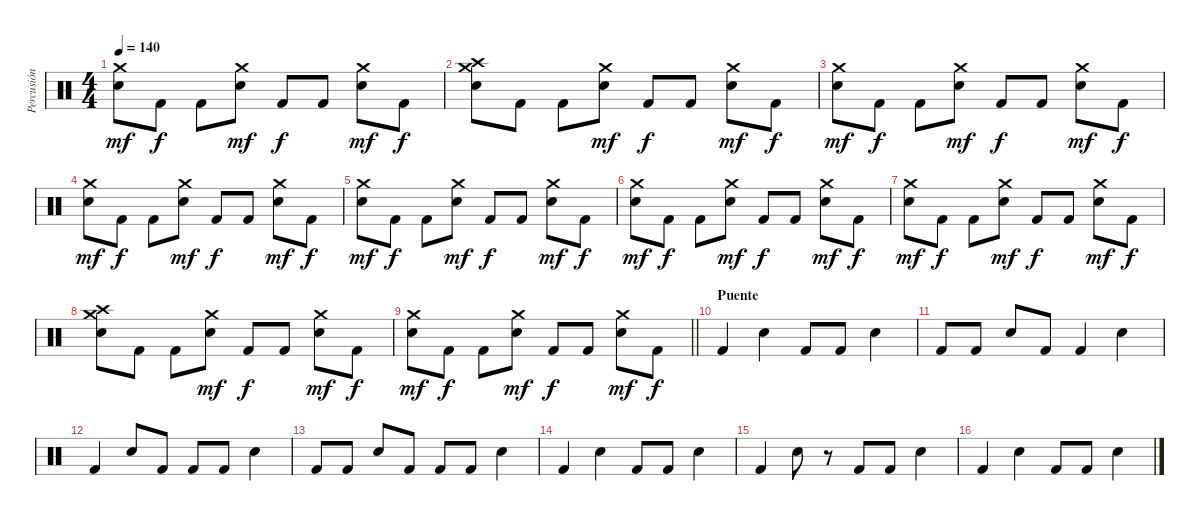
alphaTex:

\track ("Percusión" "Percusión") {instrument percussion}
\staff {score}
\articulation defaults
\ts (4 4)
\tempo 140
\clef neutral
\ks c
("Crash medium (hit)" "Electric Snare (hit)").8{dy mf} "Kick (hit) 2".8{dy f} "Kick (hit) 2".8 ("Crash medium (hit)" "Electric Snare (hit)").8{dy mf} "Kick (hit) 2".8{dy f} "Kick (hit) 2".8 ("Crash medium (hit)" "Electric Snare (hit)").8{dy mf} "Kick (hit) 2".8{dy f} |
("Crash medium (hit)" "Crash high (hit)" "Electric Snare (hit)").8 "Kick (hit) 2".8 "Kick (hit) 2".8 ("Crash medium (hit)" "Electric Snare (hit)").8{dy mf} "Kick (hit) 2".8{dy f} "Kick (hit) 2".8 ("Crash medium (hit)" "Electric Snare (hit)").8{dy mf} "Kick (hit) 2".8{dy f} |
("Crash medium (hit)" "Electric Snare (hit)").8{dy mf} "Kick (hit) 2".8{dy f} "Kick (hit) 2".8 ("Crash medium (hit)" "Electric Snare (hit)").8{dy mf} "Kick (hit) 2".8{dy f} "Kick (hit) 2".8 ("Crash medium (hit)" "Electric Snare (hit)").8{dy mf} "Kick (hit) 2".8{dy f} |
("Crash medium (hit)" "Electric Snare (hit)").8{dy mf} "Kick (hit) 2".8{dy f} "Kick (hit) 2".8 ("Crash medium (hit)" "Electric Snare (hit)").8{dy mf} "Kick (hit) 2".8{dy f} "Kick (hit) 2".8 ("Crash medium (hit)" "Electric Snare (hit)").8{dy mf} "Kick (hit) 2".8{dy f} |
("Crash medium (hit)" "Electric Snare (hit)").8{dy mf} "Kick (hit) 2".8{dy f} "Kick (hit) 2".8 ("Crash medium (hit)" "Electric Snare (hit)").8{dy mf} "Kick (hit) 2".8{dy f} "Kick (hit) 2".8 ("Crash medium (hit)" "Electric Snare (hit)").8{dy mf} "Kick (hit) 2".8{dy f} |
("Crash medium (hit)" "Electric Snare (hit)").8{dy mf} "Kick (hit) 2".8{dy f} "Kick (hit) 2".8 ("Crash medium (hit)" "Electric Snare (hit)").8{dy mf} "Kick (hit) 2".8{dy f} "Kick (hit) 2".8 ("Crash medium (hit)" "Electric Snare (hit)").8{dy mf} "Kick (hit) 2".8{dy f} |
("Crash medium (hit)" "Electric Snare (hit)").8{dy mf} "Kick (hit) 2".8{dy f} "Kick (hit) 2".8 ("Crash medium (hit)" "Electric Snare (hit)").8{dy mf} "Kick (hit) 2".8{dy f} "Kick (hit) 2".8 ("Crash medium (hit)" "Electric Snare (hit)").8{dy mf} "Kick (hit) 2".8{dy f} |
("Crash medium (hit)" "Crash high (hit)" "Electric Snare (hit)").8 "Kick (hit) 2".8 "Kick (hit) 2".8 ("Crash medium (hit)" "Electric Snare (hit)").8{dy mf} "Kick (hit) 2".8{dy f} "Kick (hit) 2".8 ("Crash medium (hit)" "Electric Snare (hit)").8{dy mf} "Kick (hit) 2".8{dy f} |
\barLineRight lightlight
("Crash medium (hit)" "Electric Snare (hit)").8{dy mf} "Kick (hit) 2".8{dy f} "Kick (hit) 2".8 ("Crash medium (hit)" "Electric Snare (hit)").8{dy mf} "Kick (hit) 2".8{dy f} "Kick (hit) 2".8 ("Crash medium (hit)" "Electric Snare (hit)").8{dy mf} "Kick (hit) 2".8{dy f} |
\section ("" "Puente")
"Kick (hit) 2".4 "Electric Snare (hit)".4 "Kick (hit) 2".8 "Kick (hit) 2".8 "Electric Snare (hit)".4 |
"Kick (hit) 2".8 "Kick (hit) 2".8 "Electric Snare (hit)".8 "Kick (hit) 2".8 "Kick (hit) 2".4 "Electric Snare (hit)".4 |
"Kick (hit) 2".4 "Electric Snare (hit)".8 "Kick (hit) 2".8 "Kick (hit) 2".8 "Kick (hit) 2".8 "Electric Snare (hit)".4 |
"Kick (hit) 2".8 "Kick (hit) 2".8 "Electric Snare (hit)".8 "Kick (hit) 2".8 "Kick (hit) 2".8 "Kick (hit) 2".8 "Electric Snare (hit)".4 |
"Kick (hit) 2".4 "Electric Snare (hit)".4 "Kick (hit) 2".8 "Kick (hit) 2".8 "Electric Snare (hit)".4 |
"Kick (hit) 2".4 "Electric Snare (hit)".8 r.8 "Kick (hit) 2".8 "Kick (hit) 2".8 "Electric Snare (hit)".4 |
"Kick (hit) 2".4 "Electric Snare (hit)".4 "Kick (hit) 2".8 "Kick (hit) 2".8 "Electric Snare (hit)".4
